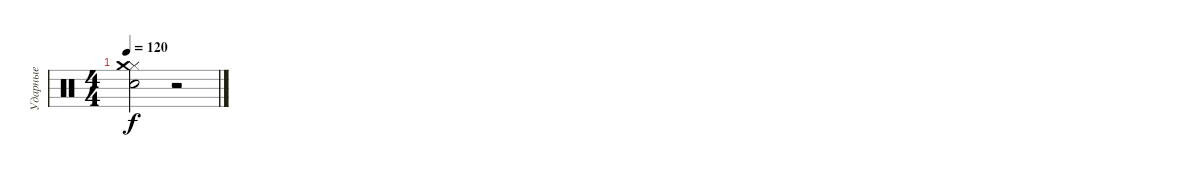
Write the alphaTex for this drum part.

\track ("Ударные" "Ударные") {instrument percussion}
\staff {score}
\articulation defaults
\ts (4 4)
\tempo 120
\clef neutral
\ks c
("Hi-Hat (closed)" "Snare (hit) 2" "Crash medium (hit)").2{dy f} r.2
